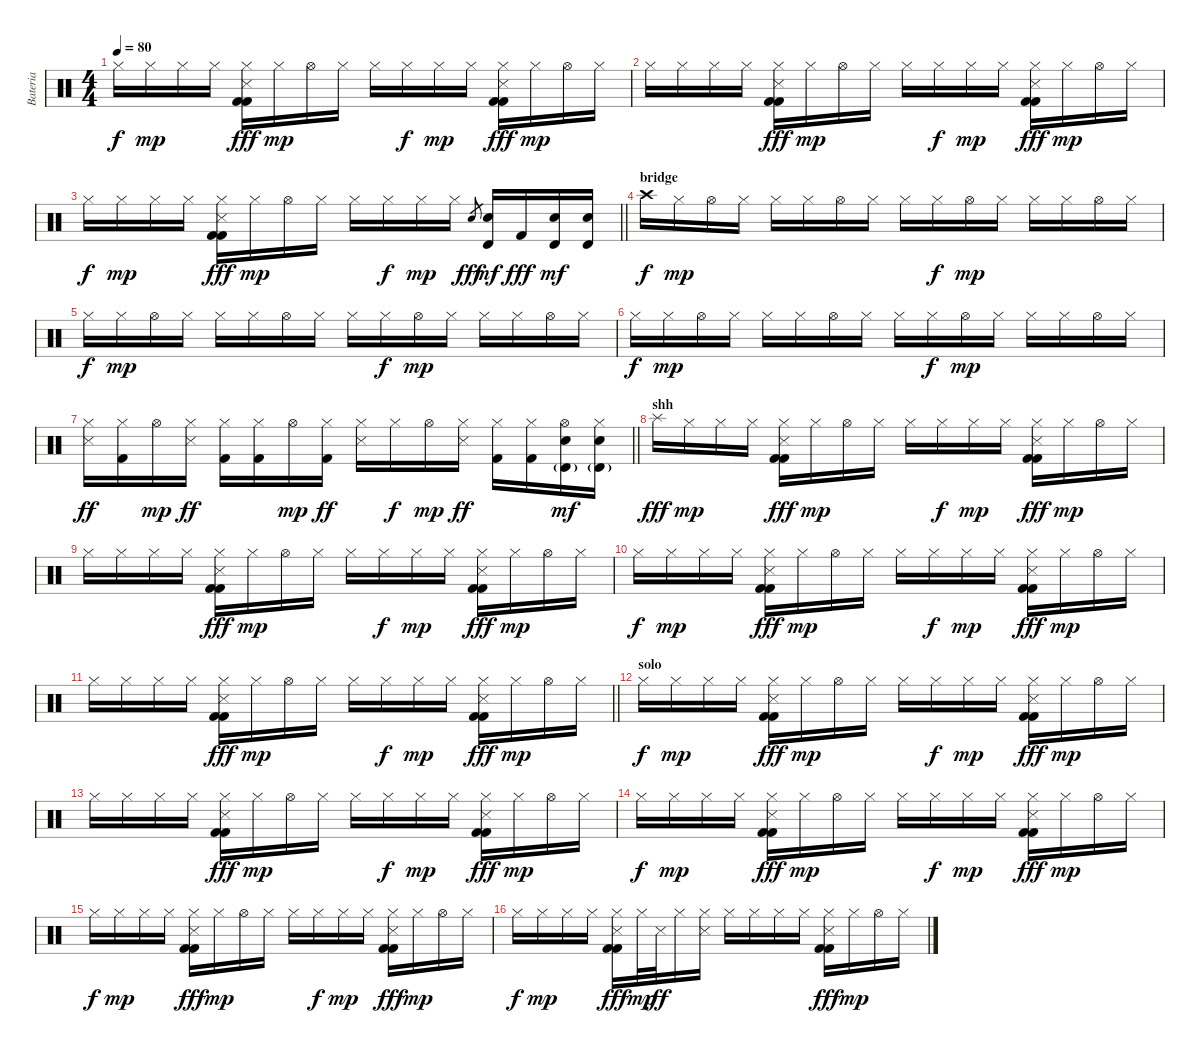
\track ("Bateria" "Bateria") {instrument percussion}
\staff {score}
\articulation defaults
\ts (4 4)
\tempo 80
\clef neutral
\ks c "Hi-Hat (closed)".16{dy f} "Hi-Hat (closed)".16{dy mp} "Hi-Hat (closed)".16 "Hi-Hat (closed)".16
("Hi-Hat (closed)" "Kick (hit) 2" "Snare (side stick) 3" "Kick (hit) 2").16{dy fff} "Hi-Hat (closed)".16{dy mp} "Hi-Hat (open)".16 "Hi-Hat (closed)".16 "Hi-Hat (closed)".16 "Hi-Hat (closed)".16{dy f} "Hi-Hat (closed)".16{dy mp} "Hi-Hat (closed)".16 ("Hi-Hat (closed)" "Snare (side stick) 3" "Kick (hit) 2" "Kick (hit) 2").16{dy fff} "Hi-Hat (closed)".16{dy mp} "Hi-Hat (open)".16 "Hi-Hat (closed)".16 |
"Hi-Hat (closed)".16 "Hi-Hat (closed)".16 "Hi-Hat (closed)".16 "Hi-Hat (closed)".16 ("Hi-Hat (closed)" "Kick (hit) 2" "Snare (side stick) 3" "Kick (hit) 2").16{dy fff} "Hi-Hat (closed)".16{dy mp} "Hi-Hat (open)".16 "Hi-Hat (closed)".16 "Hi-Hat (closed)".16 "Hi-Hat (closed)".16{dy f} "Hi-Hat (closed)".16{dy mp} "Hi-Hat (closed)".16 ("Hi-Hat (closed)" "Snare (side stick) 3" "Kick (hit) 2" "Kick (hit) 2").16{dy fff} "Hi-Hat (closed)".16{dy mp} "Hi-Hat (open)".16 "Hi-Hat (closed)".16 |
\barLineRight lightlight "Hi-Hat (closed)".16{dy f} "Hi-Hat (closed)".16{dy mp} "Hi-Hat (closed)".16 "Hi-Hat (closed)".16
("Hi-Hat (closed)" "Kick (hit) 2" "Snare (side stick) 3" "Kick (hit) 2").16{dy fff} "Hi-Hat (closed)".16{dy mp} "Hi-Hat (open)".16 "Hi-Hat (closed)".16 "Hi-Hat (closed)".16 "Hi-Hat (closed)".16{dy f} "Hi-Hat (closed)".16{dy mp} "Hi-Hat (closed)".16 "Electric Snare (hit)".8{gr dy fff} ("Electric Snare (hit)" "Timbale high (hit)").16{dy mf} "Kick (hit) 2".16{dy fff} ("Electric Snare (hit)" "Timbale high (hit)").16{dy mf} ("Electric Snare (hit)" "Timbale high (hit)").16 |
\section ("" "bridge")
"Crash high (hit)".16{dy f} "Hi-Hat (closed)".16{dy mp} "Hi-Hat (open)".16 "Hi-Hat (closed)".16 "Hi-Hat (closed)".16 "Hi-Hat (closed)".16 "Hi-Hat (open)".16 "Hi-Hat (closed)".16 "Hi-Hat (closed)".16 "Hi-Hat (closed)".16{dy f} "Hi-Hat (open)".16{dy mp} "Hi-Hat (closed)".16 "Hi-Hat (closed)".16 "Hi-Hat (closed)".16 "Hi-Hat (open)".16 "Hi-Hat (closed)".16 |
"Hi-Hat (closed)".16{dy f} "Hi-Hat (closed)".16{dy mp} "Hi-Hat (open)".16 "Hi-Hat (closed)".16 "Hi-Hat (closed)".16 "Hi-Hat (closed)".16 "Hi-Hat (open)".16 "Hi-Hat (closed)".16 "Hi-Hat (closed)".16 "Hi-Hat (closed)".16{dy f} "Hi-Hat (open)".16{dy mp} "Hi-Hat (closed)".16 "Hi-Hat (closed)".16 "Hi-Hat (closed)".16 "Hi-Hat (open)".16 "Hi-Hat (closed)".16 |
"Hi-Hat (closed)".16{dy f} "Hi-Hat (closed)".16{dy mp} "Hi-Hat (open)".16 "Hi-Hat (closed)".16 "Hi-Hat (closed)".16 "Hi-Hat (closed)".16 "Hi-Hat (open)".16 "Hi-Hat (closed)".16 "Hi-Hat (closed)".16 "Hi-Hat (closed)".16{dy f} "Hi-Hat (open)".16{dy mp} "Hi-Hat (closed)".16 "Hi-Hat (closed)".16 "Hi-Hat (closed)".16 "Hi-Hat (open)".16 "Hi-Hat (closed)".16 |
\barLineRight lightlight
("Hi-Hat (closed)" "Snare (side stick) 3").16{dy ff} ("Hi-Hat (closed)" "Kick (hit) 2").16 "Hi-Hat (open)".16{dy mp} ("Hi-Hat (closed)" "Snare (side stick) 3").16{dy ff} ("Hi-Hat (closed)" "Kick (hit) 2").16 ("Hi-Hat (closed)" "Kick (hit) 2").16 "Hi-Hat (open)".16{dy mp} ("Hi-Hat (closed)" "Kick (hit) 2").16{dy ff} ("Hi-Hat (closed)" "Snare (side stick) 3").16 "Hi-Hat (closed)".16{dy f} "Hi-Hat (open)".16{dy mp} ("Hi-Hat (closed)" "Snare (side stick) 3").16{dy ff} ("Hi-Hat (closed)" "Kick (hit) 2").16 ("Hi-Hat (closed)" "Kick (hit) 2").16 ("Hi-Hat (open)" "Electric Snare (hit)" "Timbale high (hit)"{g}).16{dy mf} ("Hi-Hat (closed)" "Electric Snare (hit)" "Timbale high (hit)"{g}).16 |
\section ("" "shh")
"Splash (hit)".16{dy fff} "Hi-Hat (closed)".16{dy mp} "Hi-Hat (closed)".16 "Hi-Hat (closed)".16 ("Hi-Hat (closed)" "Kick (hit) 2" "Snare (side stick) 3" "Kick (hit) 2").16{dy fff} "Hi-Hat (closed)".16{dy mp} "Hi-Hat (open)".16 "Hi-Hat (closed)".16 "Hi-Hat (closed)".16 "Hi-Hat (closed)".16{dy f} "Hi-Hat (closed)".16{dy mp} "Hi-Hat (closed)".16 ("Hi-Hat (closed)" "Snare (side stick) 3" "Kick (hit) 2" "Kick (hit) 2").16{dy fff} "Hi-Hat (closed)".16{dy mp} "Hi-Hat (open)".16 "Hi-Hat (closed)".16 |
"Hi-Hat (closed)".16 "Hi-Hat (closed)".16 "Hi-Hat (closed)".16 "Hi-Hat (closed)".16 ("Hi-Hat (closed)" "Kick (hit) 2" "Snare (side stick) 3" "Kick (hit) 2").16{dy fff} "Hi-Hat (closed)".16{dy mp} "Hi-Hat (open)".16 "Hi-Hat (closed)".16 "Hi-Hat (closed)".16 "Hi-Hat (closed)".16{dy f} "Hi-Hat (closed)".16{dy mp} "Hi-Hat (closed)".16 ("Hi-Hat (closed)" "Snare (side stick) 3" "Kick (hit) 2" "Kick (hit) 2").16{dy fff} "Hi-Hat (closed)".16{dy mp} "Hi-Hat (open)".16 "Hi-Hat (closed)".16 |
"Hi-Hat (closed)".16{dy f} "Hi-Hat (closed)".16{dy mp} "Hi-Hat (closed)".16 "Hi-Hat (closed)".16 ("Hi-Hat (closed)" "Kick (hit) 2" "Snare (side stick) 3" "Kick (hit) 2").16{dy fff} "Hi-Hat (closed)".16{dy mp} "Hi-Hat (open)".16 "Hi-Hat (closed)".16 "Hi-Hat (closed)".16 "Hi-Hat (closed)".16{dy f} "Hi-Hat (closed)".16{dy mp} "Hi-Hat (closed)".16 ("Hi-Hat (closed)" "Snare (side stick) 3" "Kick (hit) 2" "Kick (hit) 2").16{dy fff} "Hi-Hat (closed)".16{dy mp} "Hi-Hat (open)".16 "Hi-Hat (closed)".16 |
\barLineRight lightlight "Hi-Hat (closed)".16 "Hi-Hat (closed)".16 "Hi-Hat (closed)".16 "Hi-Hat (closed)".16
("Hi-Hat (closed)" "Kick (hit) 2" "Snare (side stick) 3" "Kick (hit) 2").16{dy fff} "Hi-Hat (closed)".16{dy mp} "Hi-Hat (open)".16 "Hi-Hat (closed)".16 "Hi-Hat (closed)".16 "Hi-Hat (closed)".16{dy f} "Hi-Hat (closed)".16{dy mp} "Hi-Hat (closed)".16 ("Hi-Hat (closed)" "Snare (side stick) 3" "Kick (hit) 2" "Kick (hit) 2").16{dy fff} "Hi-Hat (closed)".16{dy mp} "Hi-Hat (open)".16 "Hi-Hat (closed)".16 |
\section ("" "solo")
"Hi-Hat (closed)".16{dy f} "Hi-Hat (closed)".16{dy mp} "Hi-Hat (closed)".16 "Hi-Hat (closed)".16 ("Hi-Hat (closed)" "Kick (hit) 2" "Snare (side stick) 3" "Kick (hit) 2").16{dy fff} "Hi-Hat (closed)".16{dy mp} "Hi-Hat (open)".16 "Hi-Hat (closed)".16 "Hi-Hat (closed)".16 "Hi-Hat (closed)".16{dy f} "Hi-Hat (closed)".16{dy mp} "Hi-Hat (closed)".16 ("Hi-Hat (closed)" "Snare (side stick) 3" "Kick (hit) 2" "Kick (hit) 2").16{dy fff} "Hi-Hat (closed)".16{dy mp} "Hi-Hat (open)".16 "Hi-Hat (closed)".16 |
"Hi-Hat (closed)".16 "Hi-Hat (closed)".16 "Hi-Hat (closed)".16 "Hi-Hat (closed)".16 ("Hi-Hat (closed)" "Kick (hit) 2" "Snare (side stick) 3" "Kick (hit) 2").16{dy fff} "Hi-Hat (closed)".16{dy mp} "Hi-Hat (open)".16 "Hi-Hat (closed)".16 "Hi-Hat (closed)".16 "Hi-Hat (closed)".16{dy f} "Hi-Hat (closed)".16{dy mp} "Hi-Hat (closed)".16 ("Hi-Hat (closed)" "Snare (side stick) 3" "Kick (hit) 2" "Kick (hit) 2").16{dy fff} "Hi-Hat (closed)".16{dy mp} "Hi-Hat (open)".16 "Hi-Hat (closed)".16 |
"Hi-Hat (closed)".16{dy f} "Hi-Hat (closed)".16{dy mp} "Hi-Hat (closed)".16 "Hi-Hat (closed)".16 ("Hi-Hat (closed)" "Kick (hit) 2" "Snare (side stick) 3" "Kick (hit) 2").16{dy fff} "Hi-Hat (closed)".16{dy mp} "Hi-Hat (open)".16 "Hi-Hat (closed)".16 "Hi-Hat (closed)".16 "Hi-Hat (closed)".16{dy f} "Hi-Hat (closed)".16{dy mp} "Hi-Hat (closed)".16 ("Hi-Hat (closed)" "Snare (side stick) 3" "Kick (hit) 2" "Kick (hit) 2").16{dy fff} "Hi-Hat (closed)".16{dy mp} "Hi-Hat (open)".16 "Hi-Hat (closed)".16 |
"Hi-Hat (closed)".16{dy f} "Hi-Hat (closed)".16{dy mp} "Hi-Hat (closed)".16 "Hi-Hat (closed)".16 ("Hi-Hat (closed)" "Kick (hit) 2" "Snare (side stick) 3" "Kick (hit) 2").16{dy fff} "Hi-Hat (closed)".16{dy mp} "Hi-Hat (open)".16 "Hi-Hat (closed)".16 "Hi-Hat (closed)".16 "Hi-Hat (closed)".16{dy f} "Hi-Hat (closed)".16{dy mp} "Hi-Hat (closed)".16 ("Hi-Hat (closed)" "Snare (side stick) 3" "Kick (hit) 2" "Kick (hit) 2").16{dy fff} "Hi-Hat (closed)".16{dy mp} "Hi-Hat (open)".16 "Hi-Hat (closed)".16 |
"Hi-Hat (closed)".16{dy f} "Hi-Hat (closed)".16{dy mp} "Hi-Hat (closed)".16 "Hi-Hat (closed)".16 ("Hi-Hat (closed)" "Kick (hit) 2" "Snare (side stick) 3" "Kick (hit) 2").16{dy fff} "Hi-Hat (closed)".32{dy mp} "Snare (side stick) 3".32{dy ff} "Hi-Hat (closed)".16 ("Hi-Hat (closed)" "Snare (side stick) 3").16 "Hi-Hat (closed)".16 "Hi-Hat (closed)".16 "Hi-Hat (closed)".16 "Hi-Hat (closed)".16 ("Hi-Hat (closed)" "Snare (side stick) 3" "Kick (hit) 2" "Kick (hit) 2").16{dy fff} "Hi-Hat (closed)".16{dy mp} "Hi-Hat (open)".16 "Hi-Hat (closed)".16
